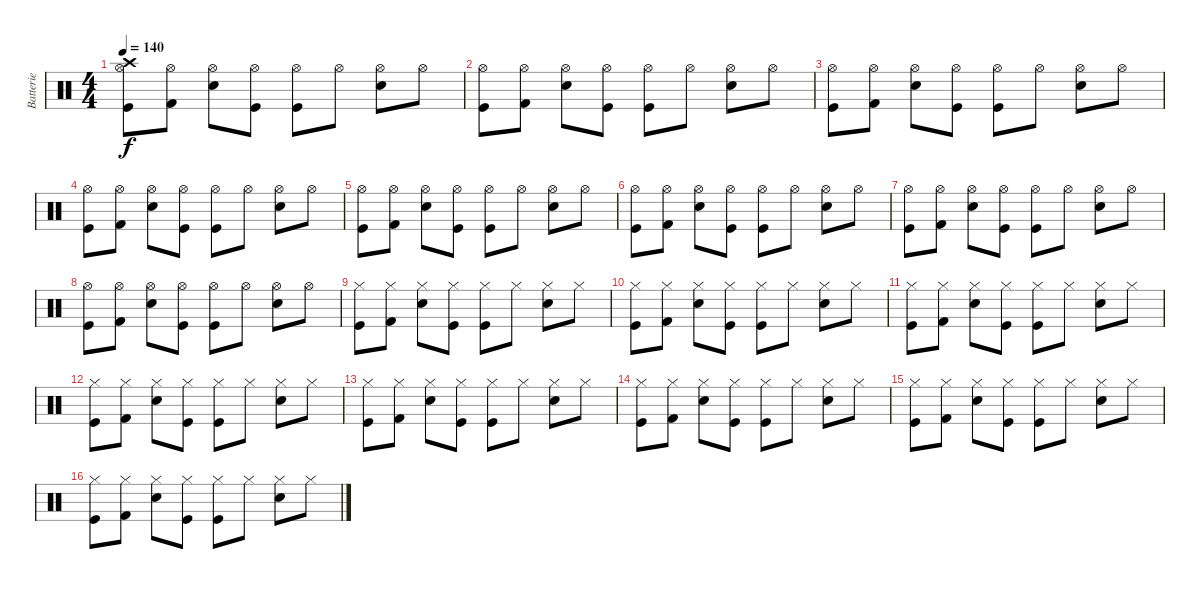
\track ("Batterie" "Batterie") {instrument percussion}
\staff {score}
\articulation defaults
\ts (4 4)
\tempo 140
\clef neutral
\ks c
("Hi-Hat (open)" "Crash high (hit)" "Kick (hit)").8{dy f} ("Hi-Hat (open)" "Kick (hit) 2").8 ("Hi-Hat (open)" "Snare (hit) 2").8 ("Hi-Hat (open)" "Kick (hit)").8 ("Hi-Hat (open)" "Kick (hit)").8 "Hi-Hat (open)".8 ("Hi-Hat (open)" "Snare (hit) 2").8 "Hi-Hat (open)".8 |
("Hi-Hat (open)" "Kick (hit)").8 ("Hi-Hat (open)" "Kick (hit) 2").8 ("Hi-Hat (open)" "Snare (hit) 2").8 ("Hi-Hat (open)" "Kick (hit)").8 ("Hi-Hat (open)" "Kick (hit)").8 "Hi-Hat (open)".8 ("Hi-Hat (open)" "Snare (hit) 2").8 "Hi-Hat (open)".8 |
("Hi-Hat (open)" "Kick (hit)").8 ("Hi-Hat (open)" "Kick (hit) 2").8 ("Hi-Hat (open)" "Snare (hit) 2").8 ("Hi-Hat (open)" "Kick (hit)").8 ("Hi-Hat (open)" "Kick (hit)").8 "Hi-Hat (open)".8 ("Hi-Hat (open)" "Snare (hit) 2").8 "Hi-Hat (open)".8 |
("Hi-Hat (open)" "Kick (hit)").8 ("Hi-Hat (open)" "Kick (hit) 2").8 ("Hi-Hat (open)" "Snare (hit) 2").8 ("Hi-Hat (open)" "Kick (hit)").8 ("Hi-Hat (open)" "Kick (hit)").8 "Hi-Hat (open)".8 ("Hi-Hat (open)" "Snare (hit) 2").8 "Hi-Hat (open)".8 |
("Hi-Hat (open)" "Kick (hit)").8 ("Hi-Hat (open)" "Kick (hit) 2").8 ("Hi-Hat (open)" "Snare (hit) 2").8 ("Hi-Hat (open)" "Kick (hit)").8 ("Hi-Hat (open)" "Kick (hit)").8 "Hi-Hat (open)".8 ("Hi-Hat (open)" "Snare (hit) 2").8 "Hi-Hat (open)".8 |
("Hi-Hat (open)" "Kick (hit)").8 ("Hi-Hat (open)" "Kick (hit) 2").8 ("Hi-Hat (open)" "Snare (hit) 2").8 ("Hi-Hat (open)" "Kick (hit)").8 ("Hi-Hat (open)" "Kick (hit)").8 "Hi-Hat (open)".8 ("Hi-Hat (open)" "Snare (hit) 2").8 "Hi-Hat (open)".8 |
("Hi-Hat (open)" "Kick (hit)").8 ("Hi-Hat (open)" "Kick (hit) 2").8 ("Hi-Hat (open)" "Snare (hit) 2").8 ("Hi-Hat (open)" "Kick (hit)").8 ("Hi-Hat (open)" "Kick (hit)").8 "Hi-Hat (open)".8 ("Hi-Hat (open)" "Snare (hit) 2").8 "Hi-Hat (open)".8 |
("Hi-Hat (open)" "Kick (hit)").8 ("Hi-Hat (open)" "Kick (hit) 2").8 ("Hi-Hat (open)" "Snare (hit) 2").8 ("Hi-Hat (open)" "Kick (hit)").8 ("Hi-Hat (open)" "Kick (hit)").8 "Hi-Hat (open)".8 ("Hi-Hat (open)" "Snare (hit) 2").8 "Hi-Hat (open)".8 |
("Hi-Hat (closed)" "Kick (hit)").8 ("Hi-Hat (closed)" "Kick (hit) 2").8 ("Hi-Hat (closed)" "Snare (hit) 2").8 ("Hi-Hat (closed)" "Kick (hit)").8 ("Hi-Hat (closed)" "Kick (hit)").8 "Hi-Hat (closed)".8 ("Hi-Hat (closed)" "Snare (hit) 2").8 "Hi-Hat (closed)".8 |
("Hi-Hat (closed)" "Kick (hit)").8 ("Hi-Hat (closed)" "Kick (hit) 2").8 ("Hi-Hat (closed)" "Snare (hit) 2").8 ("Hi-Hat (closed)" "Kick (hit)").8 ("Hi-Hat (closed)" "Kick (hit)").8 "Hi-Hat (closed)".8 ("Hi-Hat (closed)" "Snare (hit) 2").8 "Hi-Hat (closed)".8 |
("Hi-Hat (closed)" "Kick (hit)").8 ("Hi-Hat (closed)" "Kick (hit) 2").8 ("Hi-Hat (closed)" "Snare (hit) 2").8 ("Hi-Hat (closed)" "Kick (hit)").8 ("Hi-Hat (closed)" "Kick (hit)").8 "Hi-Hat (closed)".8 ("Hi-Hat (closed)" "Snare (hit) 2").8 "Hi-Hat (closed)".8 |
("Hi-Hat (closed)" "Kick (hit)").8 ("Hi-Hat (closed)" "Kick (hit) 2").8 ("Hi-Hat (closed)" "Snare (hit) 2").8 ("Hi-Hat (closed)" "Kick (hit)").8 ("Hi-Hat (closed)" "Kick (hit)").8 "Hi-Hat (closed)".8 ("Hi-Hat (closed)" "Snare (hit) 2").8 "Hi-Hat (closed)".8 |
("Hi-Hat (closed)" "Kick (hit)").8 ("Hi-Hat (closed)" "Kick (hit) 2").8 ("Hi-Hat (closed)" "Snare (hit) 2").8 ("Hi-Hat (closed)" "Kick (hit)").8 ("Hi-Hat (closed)" "Kick (hit)").8 "Hi-Hat (closed)".8 ("Hi-Hat (closed)" "Snare (hit) 2").8 "Hi-Hat (closed)".8 |
("Hi-Hat (closed)" "Kick (hit)").8 ("Hi-Hat (closed)" "Kick (hit) 2").8 ("Hi-Hat (closed)" "Snare (hit) 2").8 ("Hi-Hat (closed)" "Kick (hit)").8 ("Hi-Hat (closed)" "Kick (hit)").8 "Hi-Hat (closed)".8 ("Hi-Hat (closed)" "Snare (hit) 2").8 "Hi-Hat (closed)".8 |
("Hi-Hat (closed)" "Kick (hit)").8 ("Hi-Hat (closed)" "Kick (hit) 2").8 ("Hi-Hat (closed)" "Snare (hit) 2").8 ("Hi-Hat (closed)" "Kick (hit)").8 ("Hi-Hat (closed)" "Kick (hit)").8 "Hi-Hat (closed)".8 ("Hi-Hat (closed)" "Snare (hit) 2").8 "Hi-Hat (closed)".8 |
("Hi-Hat (closed)" "Kick (hit)").8 ("Hi-Hat (closed)" "Kick (hit) 2").8 ("Hi-Hat (closed)" "Snare (hit) 2").8 ("Hi-Hat (closed)" "Kick (hit)").8 ("Hi-Hat (closed)" "Kick (hit)").8 "Hi-Hat (closed)".8 ("Hi-Hat (closed)" "Snare (hit) 2").8 "Hi-Hat (closed)".8
